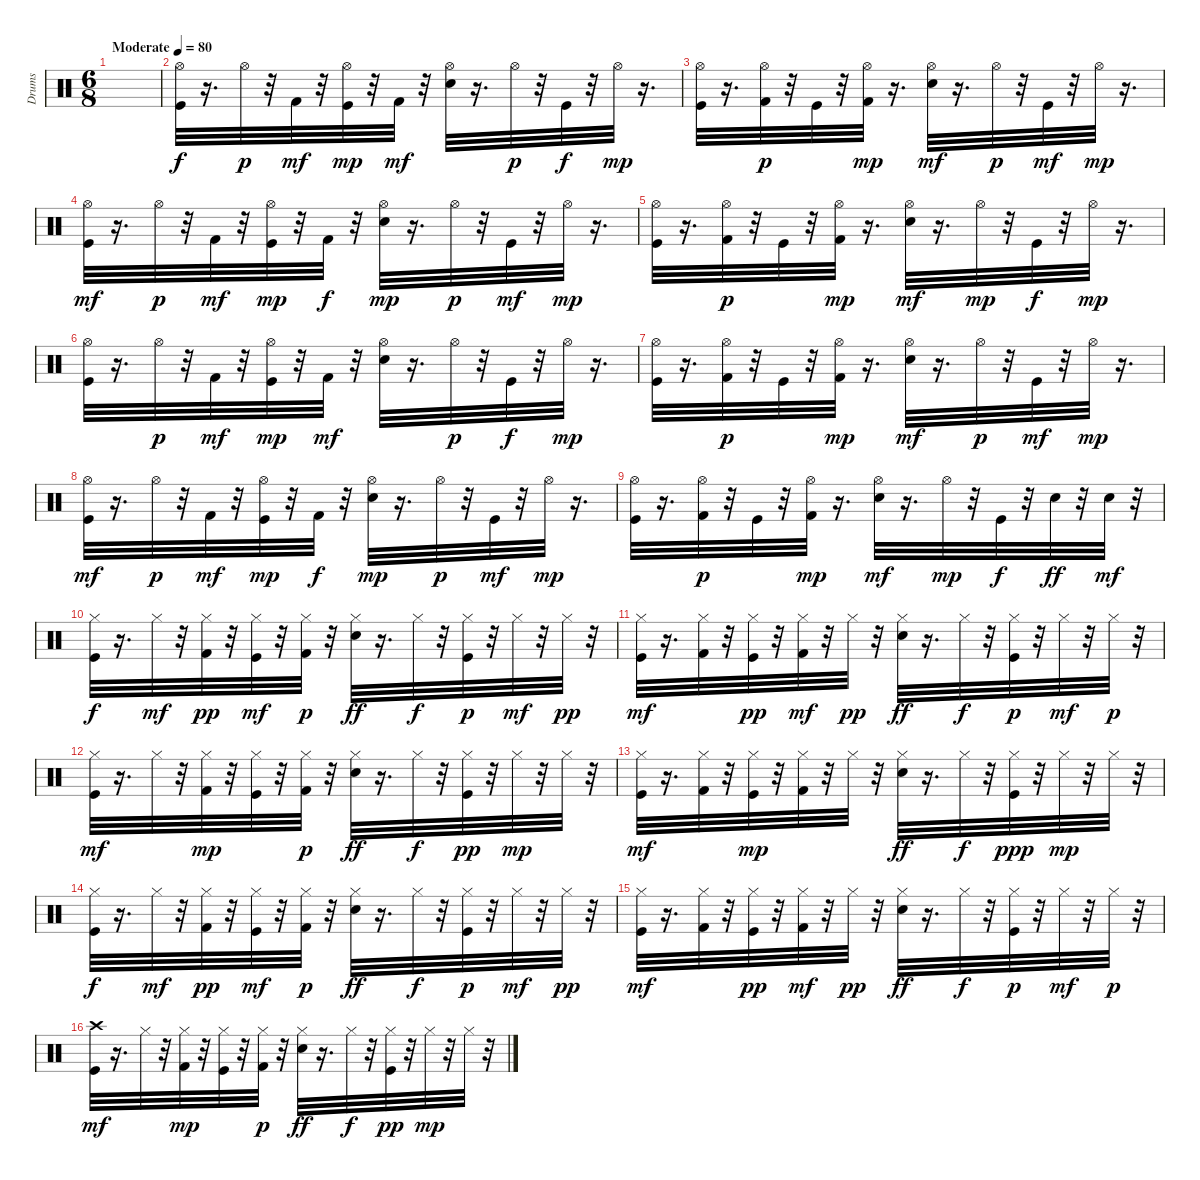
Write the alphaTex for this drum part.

\track ("Drums" "Drums") {instrument percussion}
\staff {score}
\articulation defaults
\ts (6 8)
\tempo (80 "Moderate")
\clef neutral
\ks c
|
("Kick (hit)" "Hi-Hat (open)").32 r.16{d} "Hi-Hat (open)".32{dy p} r.32 "Kick (hit) 2".32{dy mf} r.32 ("Kick (hit)" "Hi-Hat (open)").32{dy mp} r.32 "Kick (hit) 2".32{dy mf} r.32 ("Electric Snare (hit)" "Hi-Hat (open)").32 r.16{d} "Hi-Hat (open)".32{dy p} r.32 "Kick (hit)".32{dy f} r.32 "Hi-Hat (open)".32{dy mp} r.16{d} |
("Kick (hit)" "Hi-Hat (open)").32 r.16{d} ("Kick (hit) 2" "Hi-Hat (open)").32{dy p} r.32 "Kick (hit)".32 r.32 ("Kick (hit) 2" "Hi-Hat (open)").32{dy mp} r.16{d} ("Electric Snare (hit)" "Hi-Hat (open)").32{dy mf} r.16{d} "Hi-Hat (open)".32{dy p} r.32 "Kick (hit)".32{dy mf} r.32 "Hi-Hat (open)".32{dy mp} r.16{d} |
("Kick (hit)" "Hi-Hat (open)").32{dy mf} r.16{d} "Hi-Hat (open)".32{dy p} r.32 "Kick (hit) 2".32{dy mf} r.32 ("Kick (hit)" "Hi-Hat (open)").32{dy mp} r.32 "Kick (hit) 2".32{dy f} r.32 ("Electric Snare (hit)" "Hi-Hat (open)").32{dy mp} r.16{d} "Hi-Hat (open)".32{dy p} r.32 "Kick (hit)".32{dy mf} r.32 "Hi-Hat (open)".32{dy mp} r.16{d} |
("Kick (hit)" "Hi-Hat (open)").32 r.16{d} ("Kick (hit) 2" "Hi-Hat (open)").32{dy p} r.32 "Kick (hit)".32 r.32 ("Kick (hit) 2" "Hi-Hat (open)").32{dy mp} r.16{d} ("Electric Snare (hit)" "Hi-Hat (open)").32{dy mf} r.16{d} "Hi-Hat (open)".32{dy mp} r.32 "Kick (hit)".32{dy f} r.32 "Hi-Hat (open)".32{dy mp} r.16{d} |
("Kick (hit)" "Hi-Hat (open)").32 r.16{d} "Hi-Hat (open)".32{dy p} r.32 "Kick (hit) 2".32{dy mf} r.32 ("Kick (hit)" "Hi-Hat (open)").32{dy mp} r.32 "Kick (hit) 2".32{dy mf} r.32 ("Electric Snare (hit)" "Hi-Hat (open)").32 r.16{d} "Hi-Hat (open)".32{dy p} r.32 "Kick (hit)".32{dy f} r.32 "Hi-Hat (open)".32{dy mp} r.16{d} |
("Kick (hit)" "Hi-Hat (open)").32 r.16{d} ("Kick (hit) 2" "Hi-Hat (open)").32{dy p} r.32 "Kick (hit)".32 r.32 ("Kick (hit) 2" "Hi-Hat (open)").32{dy mp} r.16{d} ("Electric Snare (hit)" "Hi-Hat (open)").32{dy mf} r.16{d} "Hi-Hat (open)".32{dy p} r.32 "Kick (hit)".32{dy mf} r.32 "Hi-Hat (open)".32{dy mp} r.16{d} |
("Kick (hit)" "Hi-Hat (open)").32{dy mf} r.16{d} "Hi-Hat (open)".32{dy p} r.32 "Kick (hit) 2".32{dy mf} r.32 ("Kick (hit)" "Hi-Hat (open)").32{dy mp} r.32 "Kick (hit) 2".32{dy f} r.32 ("Electric Snare (hit)" "Hi-Hat (open)").32{dy mp} r.16{d} "Hi-Hat (open)".32{dy p} r.32 "Kick (hit)".32{dy mf} r.32 "Hi-Hat (open)".32{dy mp} r.16{d} |
("Kick (hit)" "Hi-Hat (open)").32 r.16{d} ("Kick (hit) 2" "Hi-Hat (open)").32{dy p} r.32 "Kick (hit)".32 r.32 ("Kick (hit) 2" "Hi-Hat (open)").32{dy mp} r.16{d} ("Electric Snare (hit)" "Hi-Hat (open)").32{dy mf} r.16{d} "Hi-Hat (open)".32{dy mp} r.32 "Kick (hit)".32{dy f} r.32 "Electric Snare (hit)".32{dy ff} r.32 "Electric Snare (hit)".32{dy mf} r.32 |
("Kick (hit)" "Hi-Hat (closed)").32{dy f} r.16{d} "Hi-Hat (closed)".32{dy mf} r.32 ("Kick (hit) 2" "Hi-Hat (closed)").32{dy pp} r.32 ("Kick (hit)" "Hi-Hat (closed)").32{dy mf} r.32 ("Kick (hit) 2" "Hi-Hat (closed)").32{dy p} r.32 ("Electric Snare (hit)" "Hi-Hat (closed)").32{dy ff} r.16{d} "Hi-Hat (closed)".32{dy f} r.32 ("Kick (hit)" "Hi-Hat (closed)").32{dy p} r.32 "Hi-Hat (closed)".32{dy mf} r.32 "Hi-Hat (closed)".32{dy pp} r.32 |
("Kick (hit)" "Hi-Hat (closed)").32{dy mf} r.16{d} ("Kick (hit) 2" "Hi-Hat (closed)").32 r.32 ("Kick (hit)" "Hi-Hat (closed)").32{dy pp} r.32 ("Kick (hit) 2" "Hi-Hat (closed)").32{dy mf} r.32 "Hi-Hat (closed)".32{dy pp} r.32 ("Electric Snare (hit)" "Hi-Hat (closed)").32{dy ff} r.16{d} "Hi-Hat (closed)".32{dy f} r.32 ("Kick (hit)" "Hi-Hat (closed)").32{dy p} r.32 "Hi-Hat (closed)".32{dy mf} r.32 "Hi-Hat (closed)".32{dy p} r.32 |
("Kick (hit)" "Hi-Hat (closed)").32{dy mf} r.16{d} "Hi-Hat (closed)".32 r.32 ("Kick (hit) 2" "Hi-Hat (closed)").32{dy mp} r.32 ("Kick (hit)" "Hi-Hat (closed)").32 r.32 ("Kick (hit) 2" "Hi-Hat (closed)").32{dy p} r.32 ("Electric Snare (hit)" "Hi-Hat (closed)").32{dy ff} r.16{d} "Hi-Hat (closed)".32{dy f} r.32 ("Kick (hit)" "Hi-Hat (closed)").32{dy pp} r.32 "Hi-Hat (closed)".32{dy mp} r.32 "Hi-Hat (closed)".32 r.32 |
("Kick (hit)" "Hi-Hat (closed)").32{dy mf} r.16{d} ("Kick (hit) 2" "Hi-Hat (closed)").32 r.32 ("Kick (hit)" "Hi-Hat (closed)").32{dy mp} r.32 ("Kick (hit) 2" "Hi-Hat (closed)").32 r.32 "Hi-Hat (closed)".32 r.32 ("Electric Snare (hit)" "Hi-Hat (closed)").32{dy ff} r.16{d} "Hi-Hat (closed)".32{dy f} r.32 ("Kick (hit)" "Hi-Hat (closed)").32{dy ppp} r.32 "Hi-Hat (closed)".32{dy mp} r.32 "Hi-Hat (closed)".32 r.32 |
("Kick (hit)" "Hi-Hat (closed)").32{dy f} r.16{d} "Hi-Hat (closed)".32{dy mf} r.32 ("Kick (hit) 2" "Hi-Hat (closed)").32{dy pp} r.32 ("Kick (hit)" "Hi-Hat (closed)").32{dy mf} r.32 ("Kick (hit) 2" "Hi-Hat (closed)").32{dy p} r.32 ("Electric Snare (hit)" "Hi-Hat (closed)").32{dy ff} r.16{d} "Hi-Hat (closed)".32{dy f} r.32 ("Kick (hit)" "Hi-Hat (closed)").32{dy p} r.32 "Hi-Hat (closed)".32{dy mf} r.32 "Hi-Hat (closed)".32{dy pp} r.32 |
("Kick (hit)" "Hi-Hat (closed)").32{dy mf} r.16{d} ("Kick (hit) 2" "Hi-Hat (closed)").32 r.32 ("Kick (hit)" "Hi-Hat (closed)").32{dy pp} r.32 ("Kick (hit) 2" "Hi-Hat (closed)").32{dy mf} r.32 "Hi-Hat (closed)".32{dy pp} r.32 ("Electric Snare (hit)" "Hi-Hat (closed)").32{dy ff} r.16{d} "Hi-Hat (closed)".32{dy f} r.32 ("Kick (hit)" "Hi-Hat (closed)").32{dy p} r.32 "Hi-Hat (closed)".32{dy mf} r.32 "Hi-Hat (closed)".32{dy p} r.32 |
("Kick (hit)" "Crash high (hit)").32{dy mf} r.16{d} "Hi-Hat (closed)".32 r.32 ("Kick (hit) 2" "Hi-Hat (closed)").32{dy mp} r.32 ("Kick (hit)" "Hi-Hat (closed)").32 r.32 ("Kick (hit) 2" "Hi-Hat (closed)").32{dy p} r.32 ("Electric Snare (hit)" "Hi-Hat (closed)").32{dy ff} r.16{d} "Hi-Hat (closed)".32{dy f} r.32 ("Kick (hit)" "Hi-Hat (closed)").32{dy pp} r.32 "Hi-Hat (closed)".32{dy mp} r.32 "Hi-Hat (closed)".32 r.32
